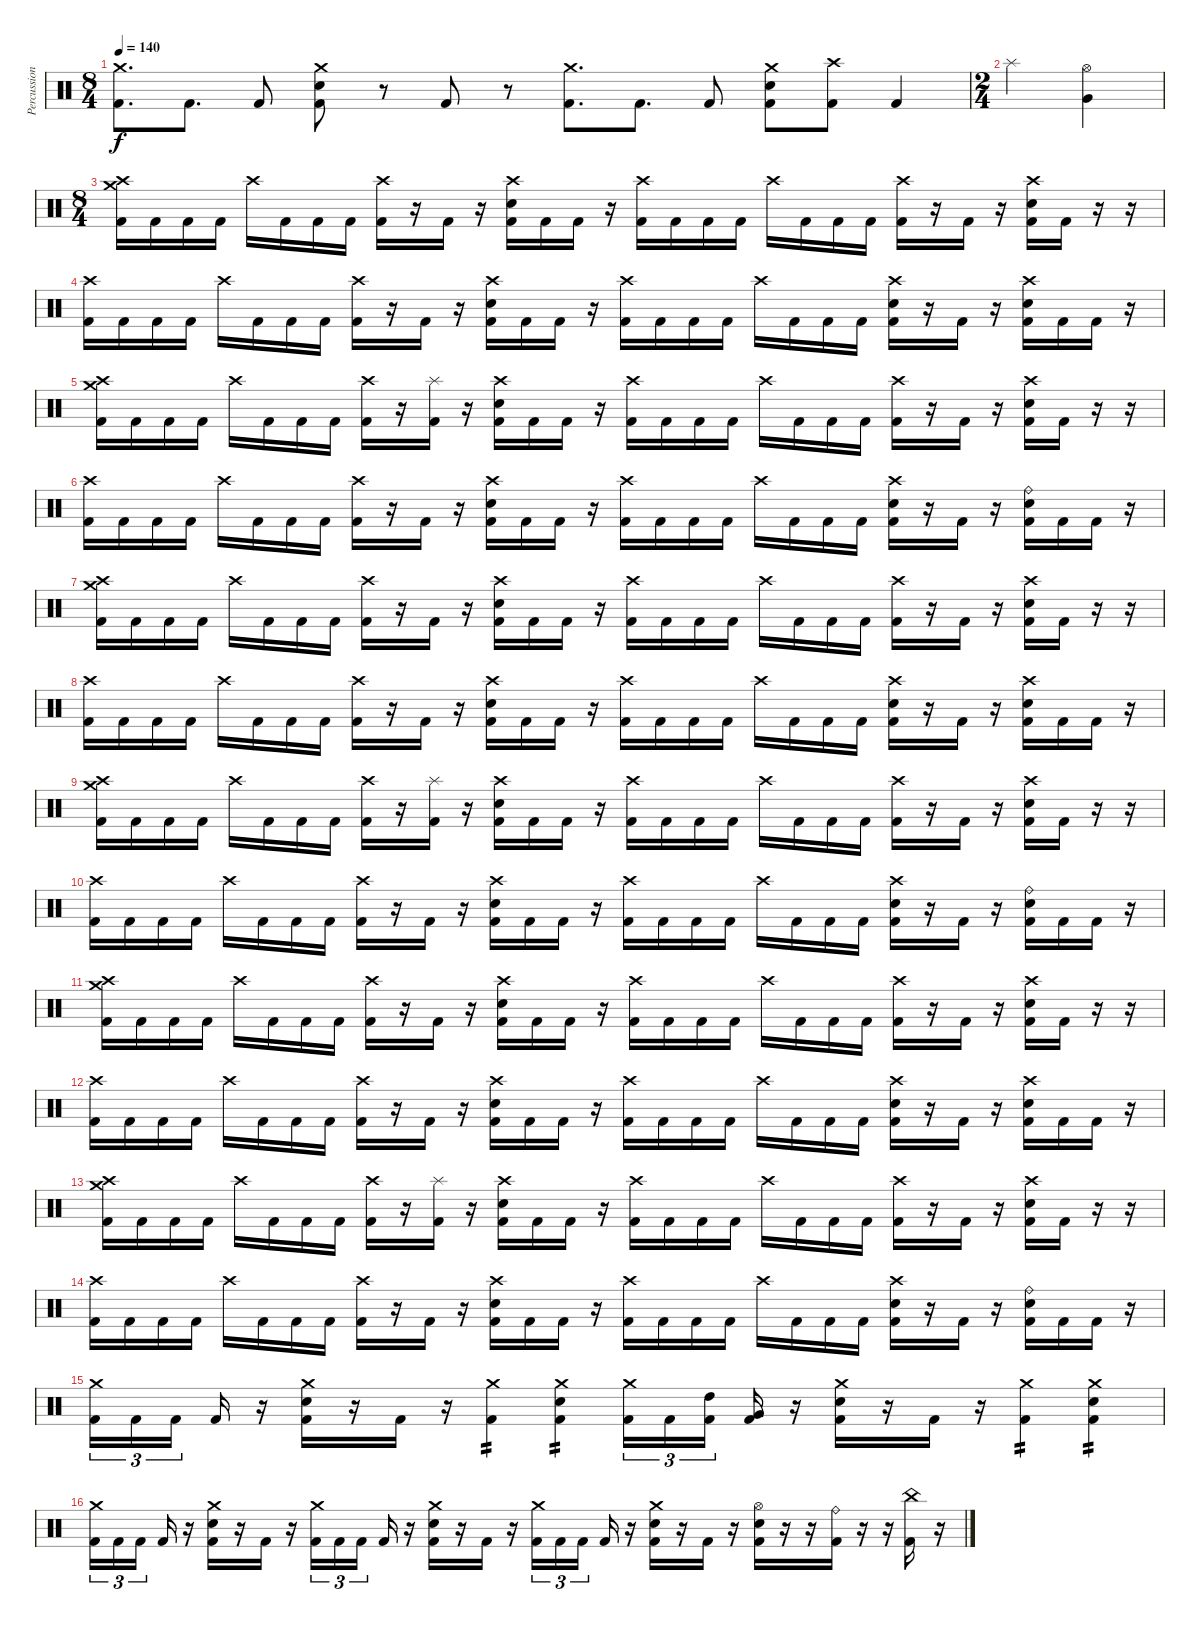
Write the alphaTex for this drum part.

\track ("Percussion" "Percussion") {solo instrument percussion}
\staff {score}
\articulation defaults
\ts (8 4)
\tempo 140
\clef neutral
\ks c
("Crash medium (hit)" "Kick (hit) 2").8{d dy f} "Kick (hit) 2".8{d} "Kick (hit) 2".8 ("Crash medium (hit)" "Electric Snare (hit)" "Kick (hit) 2").8 r.8 "Kick (hit) 2".8 r.8 ("Crash medium (hit)" "Kick (hit) 2").8{d} "Kick (hit) 2".8{d} "Kick (hit) 2".8 ("Crash medium (hit)" "Electric Snare (hit)" "Kick (hit) 2").8 ("Crash high (hit)" "Kick (hit) 2").8 "Kick (hit) 2".4 |
\ts (2 4)
"Splash (hit)".4 ("Hi-Hat (open)" "Very Low Tom (hit)").4 |
\ts (8 4)
("Crash high (hit)" "Crash medium (hit)" "Kick (hit) 2").16 "Kick (hit) 2".16 "Kick (hit) 2".16 "Kick (hit) 2".16 "Crash high (hit)".16 "Kick (hit) 2".16 "Kick (hit) 2".16 "Kick (hit) 2".16 ("Crash high (hit)" "Kick (hit) 2").16 r.16 "Kick (hit) 2".16 r.16 ("Crash high (hit)" "Electric Snare (hit)" "Kick (hit) 2").16 "Kick (hit) 2".16 "Kick (hit) 2".16 r.16 ("Crash high (hit)" "Kick (hit) 2").16 "Kick (hit) 2".16 "Kick (hit) 2".16 "Kick (hit) 2".16 "Crash high (hit)".16 "Kick (hit) 2".16 "Kick (hit) 2".16 "Kick (hit) 2".16 ("Crash high (hit)" "Kick (hit) 2").16 r.16 "Kick (hit) 2".16 r.16 ("Crash high (hit)" "Electric Snare (hit)" "Kick (hit) 2").16 "Kick (hit) 2".16 r.16 r.16 |
("Crash high (hit)" "Kick (hit) 2").16 "Kick (hit) 2".16 "Kick (hit) 2".16 "Kick (hit) 2".16 "Crash high (hit)".16 "Kick (hit) 2".16 "Kick (hit) 2".16 "Kick (hit) 2".16 ("Crash high (hit)" "Kick (hit) 2").16 r.16 "Kick (hit) 2".16 r.16 ("Crash high (hit)" "Electric Snare (hit)" "Kick (hit) 2").16 "Kick (hit) 2".16 "Kick (hit) 2".16 r.16 ("Crash high (hit)" "Kick (hit) 2").16 "Kick (hit) 2".16 "Kick (hit) 2".16 "Kick (hit) 2".16 "Crash high (hit)".16 "Kick (hit) 2".16 "Kick (hit) 2".16 "Kick (hit) 2".16 ("Crash high (hit)" "Electric Snare (hit)" "Kick (hit) 2").16 r.16 "Kick (hit) 2".16 r.16 ("Crash high (hit)" "Electric Snare (hit)" "Kick (hit) 2").16 "Kick (hit) 2".16 "Kick (hit) 2".16 r.16 |
("Crash high (hit)" "Crash medium (hit)" "Kick (hit) 2").16 "Kick (hit) 2".16 "Kick (hit) 2".16 "Kick (hit) 2".16 "Crash high (hit)".16 "Kick (hit) 2".16 "Kick (hit) 2".16 "Kick (hit) 2".16 ("Crash high (hit)" "Kick (hit) 2").16 r.16 ("Splash (hit)" "Kick (hit) 2").16 r.16 ("Crash high (hit)" "Electric Snare (hit)" "Kick (hit) 2").16 "Kick (hit) 2".16 "Kick (hit) 2".16 r.16 ("Crash high (hit)" "Kick (hit) 2").16 "Kick (hit) 2".16 "Kick (hit) 2".16 "Kick (hit) 2".16 "Crash high (hit)".16 "Kick (hit) 2".16 "Kick (hit) 2".16 "Kick (hit) 2".16 ("Crash high (hit)" "Kick (hit) 2").16 r.16 "Kick (hit) 2".16 r.16 ("Crash high (hit)" "Electric Snare (hit)" "Kick (hit) 2").16 "Kick (hit) 2".16 r.16 r.16 |
("Crash high (hit)" "Kick (hit) 2").16 "Kick (hit) 2".16 "Kick (hit) 2".16 "Kick (hit) 2".16 "Crash high (hit)".16 "Kick (hit) 2".16 "Kick (hit) 2".16 "Kick (hit) 2".16 ("Crash high (hit)" "Kick (hit) 2").16 r.16 "Kick (hit) 2".16 r.16 ("Crash high (hit)" "Electric Snare (hit)" "Kick (hit) 2").16 "Kick (hit) 2".16 "Kick (hit) 2".16 r.16 ("Crash high (hit)" "Kick (hit) 2").16 "Kick (hit) 2".16 "Kick (hit) 2".16 "Kick (hit) 2".16 "Crash high (hit)".16 "Kick (hit) 2".16 "Kick (hit) 2".16 "Kick (hit) 2".16 ("Crash high (hit)" "Electric Snare (hit)" "Kick (hit) 2").16 r.16 "Kick (hit) 2".16 r.16 ("Ride (bell)" "Electric Snare (hit)" "Kick (hit) 2").16 "Kick (hit) 2".16 "Kick (hit) 2".16 r.16 |
("Crash high (hit)" "Crash medium (hit)" "Kick (hit) 2").16 "Kick (hit) 2".16 "Kick (hit) 2".16 "Kick (hit) 2".16 "Crash high (hit)".16 "Kick (hit) 2".16 "Kick (hit) 2".16 "Kick (hit) 2".16 ("Crash high (hit)" "Kick (hit) 2").16 r.16 "Kick (hit) 2".16 r.16 ("Crash high (hit)" "Electric Snare (hit)" "Kick (hit) 2").16 "Kick (hit) 2".16 "Kick (hit) 2".16 r.16 ("Crash high (hit)" "Kick (hit) 2").16 "Kick (hit) 2".16 "Kick (hit) 2".16 "Kick (hit) 2".16 "Crash high (hit)".16 "Kick (hit) 2".16 "Kick (hit) 2".16 "Kick (hit) 2".16 ("Crash high (hit)" "Kick (hit) 2").16 r.16 "Kick (hit) 2".16 r.16 ("Crash high (hit)" "Electric Snare (hit)" "Kick (hit) 2").16 "Kick (hit) 2".16 r.16 r.16 |
("Crash high (hit)" "Kick (hit) 2").16 "Kick (hit) 2".16 "Kick (hit) 2".16 "Kick (hit) 2".16 "Crash high (hit)".16 "Kick (hit) 2".16 "Kick (hit) 2".16 "Kick (hit) 2".16 ("Crash high (hit)" "Kick (hit) 2").16 r.16 "Kick (hit) 2".16 r.16 ("Crash high (hit)" "Electric Snare (hit)" "Kick (hit) 2").16 "Kick (hit) 2".16 "Kick (hit) 2".16 r.16 ("Crash high (hit)" "Kick (hit) 2").16 "Kick (hit) 2".16 "Kick (hit) 2".16 "Kick (hit) 2".16 "Crash high (hit)".16 "Kick (hit) 2".16 "Kick (hit) 2".16 "Kick (hit) 2".16 ("Crash high (hit)" "Electric Snare (hit)" "Kick (hit) 2").16 r.16 "Kick (hit) 2".16 r.16 ("Crash high (hit)" "Electric Snare (hit)" "Kick (hit) 2").16 "Kick (hit) 2".16 "Kick (hit) 2".16 r.16 |
("Crash high (hit)" "Crash medium (hit)" "Kick (hit) 2").16 "Kick (hit) 2".16 "Kick (hit) 2".16 "Kick (hit) 2".16 "Crash high (hit)".16 "Kick (hit) 2".16 "Kick (hit) 2".16 "Kick (hit) 2".16 ("Crash high (hit)" "Kick (hit) 2").16 r.16 ("Splash (hit)" "Kick (hit) 2").16 r.16 ("Crash high (hit)" "Electric Snare (hit)" "Kick (hit) 2").16 "Kick (hit) 2".16 "Kick (hit) 2".16 r.16 ("Crash high (hit)" "Kick (hit) 2").16 "Kick (hit) 2".16 "Kick (hit) 2".16 "Kick (hit) 2".16 "Crash high (hit)".16 "Kick (hit) 2".16 "Kick (hit) 2".16 "Kick (hit) 2".16 ("Crash high (hit)" "Kick (hit) 2").16 r.16 "Kick (hit) 2".16 r.16 ("Crash high (hit)" "Electric Snare (hit)" "Kick (hit) 2").16 "Kick (hit) 2".16 r.16 r.16 |
("Crash high (hit)" "Kick (hit) 2").16 "Kick (hit) 2".16 "Kick (hit) 2".16 "Kick (hit) 2".16 "Crash high (hit)".16 "Kick (hit) 2".16 "Kick (hit) 2".16 "Kick (hit) 2".16 ("Crash high (hit)" "Kick (hit) 2").16 r.16 "Kick (hit) 2".16 r.16 ("Crash high (hit)" "Electric Snare (hit)" "Kick (hit) 2").16 "Kick (hit) 2".16 "Kick (hit) 2".16 r.16 ("Crash high (hit)" "Kick (hit) 2").16 "Kick (hit) 2".16 "Kick (hit) 2".16 "Kick (hit) 2".16 "Crash high (hit)".16 "Kick (hit) 2".16 "Kick (hit) 2".16 "Kick (hit) 2".16 ("Crash high (hit)" "Electric Snare (hit)" "Kick (hit) 2").16 r.16 "Kick (hit) 2".16 r.16 ("Ride (bell)" "Electric Snare (hit)" "Kick (hit) 2").16 "Kick (hit) 2".16 "Kick (hit) 2".16 r.16 |
("Crash high (hit)" "Crash medium (hit)" "Kick (hit) 2").16 "Kick (hit) 2".16 "Kick (hit) 2".16 "Kick (hit) 2".16 "Crash high (hit)".16 "Kick (hit) 2".16 "Kick (hit) 2".16 "Kick (hit) 2".16 ("Crash high (hit)" "Kick (hit) 2").16 r.16 "Kick (hit) 2".16 r.16 ("Crash high (hit)" "Electric Snare (hit)" "Kick (hit) 2").16 "Kick (hit) 2".16 "Kick (hit) 2".16 r.16 ("Crash high (hit)" "Kick (hit) 2").16 "Kick (hit) 2".16 "Kick (hit) 2".16 "Kick (hit) 2".16 "Crash high (hit)".16 "Kick (hit) 2".16 "Kick (hit) 2".16 "Kick (hit) 2".16 ("Crash high (hit)" "Kick (hit) 2").16 r.16 "Kick (hit) 2".16 r.16 ("Crash high (hit)" "Electric Snare (hit)" "Kick (hit) 2").16 "Kick (hit) 2".16 r.16 r.16 |
("Crash high (hit)" "Kick (hit) 2").16 "Kick (hit) 2".16 "Kick (hit) 2".16 "Kick (hit) 2".16 "Crash high (hit)".16 "Kick (hit) 2".16 "Kick (hit) 2".16 "Kick (hit) 2".16 ("Crash high (hit)" "Kick (hit) 2").16 r.16 "Kick (hit) 2".16 r.16 ("Crash high (hit)" "Electric Snare (hit)" "Kick (hit) 2").16 "Kick (hit) 2".16 "Kick (hit) 2".16 r.16 ("Crash high (hit)" "Kick (hit) 2").16 "Kick (hit) 2".16 "Kick (hit) 2".16 "Kick (hit) 2".16 "Crash high (hit)".16 "Kick (hit) 2".16 "Kick (hit) 2".16 "Kick (hit) 2".16 ("Crash high (hit)" "Electric Snare (hit)" "Kick (hit) 2").16 r.16 "Kick (hit) 2".16 r.16 ("Crash high (hit)" "Electric Snare (hit)" "Kick (hit) 2").16 "Kick (hit) 2".16 "Kick (hit) 2".16 r.16 |
("Crash high (hit)" "Crash medium (hit)" "Kick (hit) 2").16 "Kick (hit) 2".16 "Kick (hit) 2".16 "Kick (hit) 2".16 "Crash high (hit)".16 "Kick (hit) 2".16 "Kick (hit) 2".16 "Kick (hit) 2".16 ("Crash high (hit)" "Kick (hit) 2").16 r.16 ("Splash (hit)" "Kick (hit) 2").16 r.16 ("Crash high (hit)" "Electric Snare (hit)" "Kick (hit) 2").16 "Kick (hit) 2".16 "Kick (hit) 2".16 r.16 ("Crash high (hit)" "Kick (hit) 2").16 "Kick (hit) 2".16 "Kick (hit) 2".16 "Kick (hit) 2".16 "Crash high (hit)".16 "Kick (hit) 2".16 "Kick (hit) 2".16 "Kick (hit) 2".16 ("Crash high (hit)" "Kick (hit) 2").16 r.16 "Kick (hit) 2".16 r.16 ("Crash high (hit)" "Electric Snare (hit)" "Kick (hit) 2").16 "Kick (hit) 2".16 r.16 r.16 |
("Crash high (hit)" "Kick (hit) 2").16 "Kick (hit) 2".16 "Kick (hit) 2".16 "Kick (hit) 2".16 "Crash high (hit)".16 "Kick (hit) 2".16 "Kick (hit) 2".16 "Kick (hit) 2".16 ("Crash high (hit)" "Kick (hit) 2").16 r.16 "Kick (hit) 2".16 r.16 ("Crash high (hit)" "Electric Snare (hit)" "Kick (hit) 2").16 "Kick (hit) 2".16 "Kick (hit) 2".16 r.16 ("Crash high (hit)" "Kick (hit) 2").16 "Kick (hit) 2".16 "Kick (hit) 2".16 "Kick (hit) 2".16 "Crash high (hit)".16 "Kick (hit) 2".16 "Kick (hit) 2".16 "Kick (hit) 2".16 ("Crash high (hit)" "Electric Snare (hit)" "Kick (hit) 2").16 r.16 "Kick (hit) 2".16 r.16 ("Ride (bell)" "Electric Snare (hit)" "Kick (hit) 2").16 "Kick (hit) 2".16 "Kick (hit) 2".16 r.16 |
("Crash medium (hit)" "Kick (hit) 2").16{tu (3 2)} "Kick (hit) 2".16{tu (3 2)} "Kick (hit) 2".16{tu (3 2) beam splitsecondary} "Kick (hit) 2".16 r.16 ("Crash medium (hit)" "Electric Snare (hit)" "Kick (hit) 2").16 r.16 "Kick (hit) 2".16 r.16 ("Crash medium (hit)" "Kick (hit) 2").4{tp 2} ("Crash medium (hit)" "Electric Snare (hit)" "Kick (hit) 2").4{tp 2} ("Crash medium (hit)" "Kick (hit) 2").16{tu (3 2)} "Kick (hit) 2".16{tu (3 2)} ("High Tom (hit)" "Kick (hit) 2").16{tu (3 2) beam splitsecondary} ("Very Low Tom (hit)" "Kick (hit) 2").16 r.16 ("Crash medium (hit)" "Electric Snare (hit)" "Kick (hit) 2").16 r.16 "Kick (hit) 2".16 r.16 ("Crash medium (hit)" "Kick (hit) 2").4{tp 2} ("Crash medium (hit)" "Electric Snare (hit)" "Kick (hit) 2").4{tp 2} |
("Crash medium (hit)" "Kick (hit) 2").16{tu (3 2)} "Kick (hit) 2".16{tu (3 2)} "Kick (hit) 2".16{tu (3 2) beam splitsecondary} "Kick (hit) 2".16 r.16 ("Crash medium (hit)" "Electric Snare (hit)" "Kick (hit) 2").16 r.16 "Kick (hit) 2".16 r.16 ("Crash medium (hit)" "Kick (hit) 2").16{tu (3 2)} "Kick (hit) 2".16{tu (3 2)} "Kick (hit) 2".16{tu (3 2) beam splitsecondary} "Kick (hit) 2".16 r.16 ("Crash medium (hit)" "Electric Snare (hit)" "Kick (hit) 2").16 r.16 "Kick (hit) 2".16 r.16 ("Crash medium (hit)" "Kick (hit) 2").16{tu (3 2)} "Kick (hit) 2".16{tu (3 2)} "Kick (hit) 2".16{tu (3 2) beam splitsecondary} "Kick (hit) 2".16 r.16 ("Crash medium (hit)" "Electric Snare (hit)" "Kick (hit) 2").16 r.16 "Kick (hit) 2".16 r.16 ("Hi-Hat (open)" "Electric Snare (hit)" "Kick (hit) 2").16 r.16 r.16 ("Ride (bell)" "Kick (hit) 2").16 r.16 r.16 ("China (hit)" "Kick (hit) 2").16 r.16
